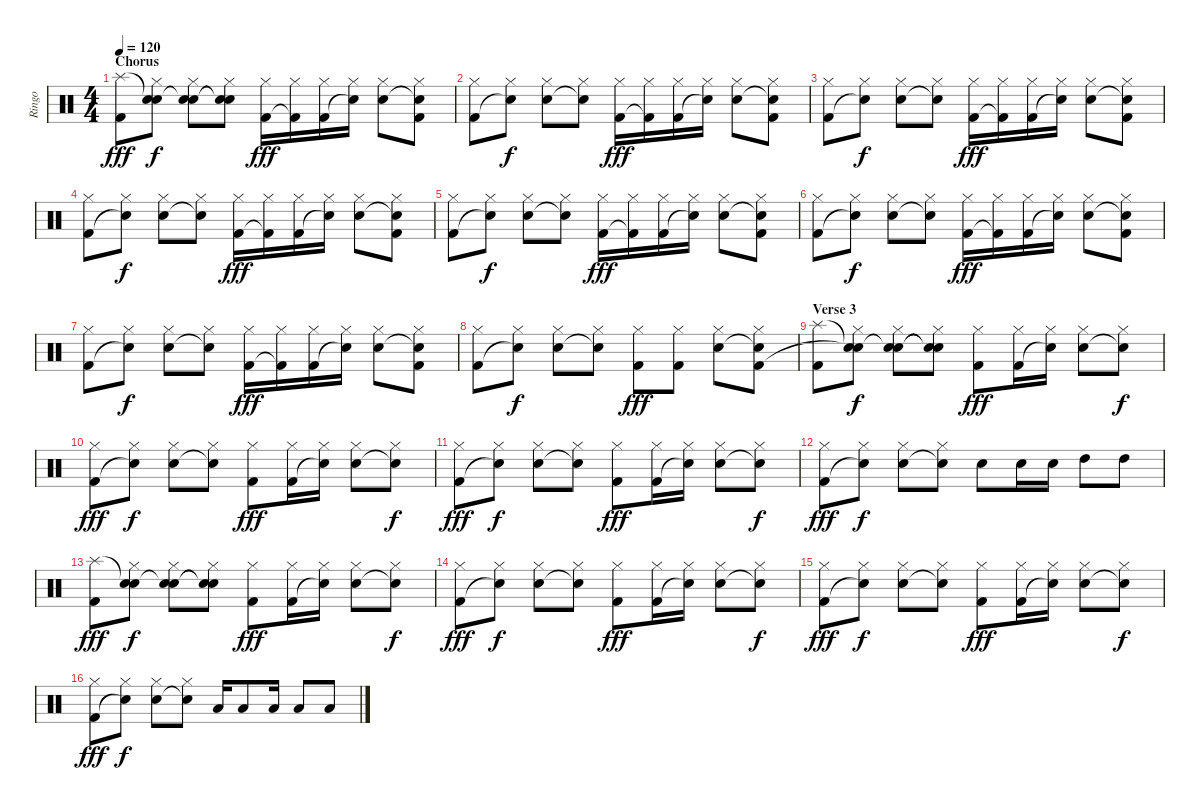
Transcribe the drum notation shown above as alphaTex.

\track ("Ringo" "Ringo") {instrument percussion}
\staff {score}
\articulation defaults
\ts (4 4)
\section ("" "Chorus")
\tempo 120
\clef neutral
\ks c
("Splash (hit)" "Kick (hit) 2").8{dy fff} ("Snare (hit)"{t} "Hi-Hat (closed)" "Snare (hit)").8{dy f} ("Snare (hit)"{t} "Hi-Hat (closed)" "Snare (hit) 2").8 ("Snare (hit)"{t} "Hi-Hat (closed)" "Snare (hit)"{t}).8 ("Hi-Hat (closed)" "Kick (hit) 2").16{dy fff} ("Hi-Hat (closed)" "Kick (hit) 2"{t}).16 ("Hi-Hat (closed)" "Kick (hit) 2").16 ("Hi-Hat (closed)" "Snare (hit)"{t}).16 ("Hi-Hat (closed)" "Snare (hit) 2").8 ("Hi-Hat (closed)" "Snare (hit)"{t} "Kick (hit) 2").8 |
("Hi-Hat (closed)" "Kick (hit) 2").8 ("Hi-Hat (closed)" "Snare (hit)"{t}).8{dy f} ("Hi-Hat (closed)" "Snare (hit) 2").8 ("Hi-Hat (closed)" "Snare (hit)"{t}).8 ("Hi-Hat (closed)" "Kick (hit) 2").16{dy fff} ("Hi-Hat (closed)" "Kick (hit) 2"{t}).16 ("Hi-Hat (closed)" "Kick (hit) 2").16 ("Hi-Hat (closed)" "Snare (hit)"{t}).16 ("Hi-Hat (closed)" "Snare (hit) 2").8 ("Hi-Hat (closed)" "Snare (hit)"{t} "Kick (hit) 2").8 |
("Hi-Hat (closed)" "Kick (hit) 2").8 ("Hi-Hat (closed)" "Snare (hit)"{t}).8{dy f} ("Hi-Hat (closed)" "Snare (hit) 2").8 ("Hi-Hat (closed)" "Snare (hit)"{t}).8 ("Hi-Hat (closed)" "Kick (hit) 2").16{dy fff} ("Hi-Hat (closed)" "Kick (hit) 2"{t}).16 ("Hi-Hat (closed)" "Kick (hit) 2").16 ("Hi-Hat (closed)" "Snare (hit)"{t}).16 ("Hi-Hat (closed)" "Snare (hit) 2").8 ("Hi-Hat (closed)" "Snare (hit)"{t} "Kick (hit) 2").8 |
("Hi-Hat (closed)" "Kick (hit) 2").8 ("Hi-Hat (closed)" "Snare (hit)"{t}).8{dy f} ("Hi-Hat (closed)" "Snare (hit) 2").8 ("Hi-Hat (closed)" "Snare (hit)"{t}).8 ("Hi-Hat (closed)" "Kick (hit) 2").16{dy fff} ("Hi-Hat (closed)" "Kick (hit) 2"{t}).16 ("Hi-Hat (closed)" "Kick (hit) 2").16 ("Hi-Hat (closed)" "Snare (hit)"{t}).16 ("Hi-Hat (closed)" "Snare (hit) 2").8 ("Hi-Hat (closed)" "Snare (hit)"{t} "Kick (hit) 2").8 |
("Hi-Hat (closed)" "Kick (hit) 2").8 ("Hi-Hat (closed)" "Snare (hit)"{t}).8{dy f} ("Hi-Hat (closed)" "Snare (hit) 2").8 ("Hi-Hat (closed)" "Snare (hit)"{t}).8 ("Hi-Hat (closed)" "Kick (hit) 2").16{dy fff} ("Hi-Hat (closed)" "Kick (hit) 2"{t}).16 ("Hi-Hat (closed)" "Kick (hit) 2").16 ("Hi-Hat (closed)" "Snare (hit)"{t}).16 ("Hi-Hat (closed)" "Snare (hit) 2").8 ("Hi-Hat (closed)" "Snare (hit)"{t} "Kick (hit) 2").8 |
("Hi-Hat (closed)" "Kick (hit) 2").8 ("Hi-Hat (closed)" "Snare (hit)"{t}).8{dy f} ("Hi-Hat (closed)" "Snare (hit) 2").8 ("Hi-Hat (closed)" "Snare (hit)"{t}).8 ("Hi-Hat (closed)" "Kick (hit) 2").16{dy fff} ("Hi-Hat (closed)" "Kick (hit) 2"{t}).16 ("Hi-Hat (closed)" "Kick (hit) 2").16 ("Hi-Hat (closed)" "Snare (hit)"{t}).16 ("Hi-Hat (closed)" "Snare (hit) 2").8 ("Hi-Hat (closed)" "Snare (hit)"{t} "Kick (hit) 2").8 |
("Hi-Hat (closed)" "Kick (hit) 2").8 ("Hi-Hat (closed)" "Snare (hit)"{t}).8{dy f} ("Hi-Hat (closed)" "Snare (hit) 2").8 ("Hi-Hat (closed)" "Snare (hit)"{t}).8 ("Hi-Hat (closed)" "Kick (hit) 2").16{dy fff} ("Hi-Hat (closed)" "Kick (hit) 2"{t}).16 ("Hi-Hat (closed)" "Kick (hit) 2").16 ("Hi-Hat (closed)" "Snare (hit)"{t}).16 ("Hi-Hat (closed)" "Snare (hit) 2").8 ("Hi-Hat (closed)" "Snare (hit)"{t} "Kick (hit) 2").8 |
("Hi-Hat (closed)" "Kick (hit) 2").8 ("Hi-Hat (closed)" "Snare (hit)"{t}).8{dy f} ("Hi-Hat (closed)" "Snare (hit) 2").8 ("Hi-Hat (closed)" "Snare (hit)"{t}).8 ("Hi-Hat (closed)" "Kick (hit) 2").8{dy fff} ("Hi-Hat (closed)" "Kick (hit) 2").8 ("Hi-Hat (closed)" "Snare (hit) 2").8 ("Hi-Hat (closed)" "Snare (hit)"{t} "Kick (hit) 2").8 |
\section ("" "Verse 3")
("Splash (hit)" "Kick (hit) 2").8 ("Snare (hit)"{t} "Hi-Hat (closed)" "Snare (hit)"{t}).8{dy f} ("Snare (hit)"{t} "Hi-Hat (closed)" "Snare (hit) 2").8 ("Snare (hit)"{t} "Hi-Hat (closed)" "Snare (hit)"{t}).8 ("Hi-Hat (closed)" "Kick (hit) 2").8{dy fff} ("Hi-Hat (closed)" "Kick (hit) 2").16 ("Hi-Hat (closed)" "Snare (hit)"{t}).16 ("Hi-Hat (closed)" "Snare (hit) 2").8 ("Hi-Hat (closed)" "Snare (hit)"{t}).8{dy f} |
("Hi-Hat (closed)" "Kick (hit) 2").8{dy fff} ("Hi-Hat (closed)" "Snare (hit)"{t}).8{dy f} ("Hi-Hat (closed)" "Snare (hit) 2").8 ("Hi-Hat (closed)" "Snare (hit)"{t}).8 ("Hi-Hat (closed)" "Kick (hit) 2").8{dy fff} ("Hi-Hat (closed)" "Kick (hit) 2").16 ("Hi-Hat (closed)" "Snare (hit)"{t}).16 ("Hi-Hat (closed)" "Snare (hit) 2").8 ("Hi-Hat (closed)" "Snare (hit)"{t}).8{dy f} |
("Hi-Hat (closed)" "Kick (hit) 2").8{dy fff} ("Hi-Hat (closed)" "Snare (hit)"{t}).8{dy f} ("Hi-Hat (closed)" "Snare (hit) 2").8 ("Hi-Hat (closed)" "Snare (hit)"{t}).8 ("Hi-Hat (closed)" "Kick (hit) 2").8{dy fff} ("Hi-Hat (closed)" "Kick (hit) 2").16 ("Hi-Hat (closed)" "Snare (hit)"{t}).16 ("Hi-Hat (closed)" "Snare (hit) 2").8 ("Hi-Hat (closed)" "Snare (hit)"{t}).8{dy f} |
("Hi-Hat (closed)" "Kick (hit) 2").8{dy fff} ("Hi-Hat (closed)" "Snare (hit)"{t}).8{dy f} ("Hi-Hat (closed)" "Snare (hit) 2").8 ("Hi-Hat (closed)" "Snare (hit)"{t}).8 "Snare (hit) 2".8 "Snare (hit) 2".16 "Snare (hit) 2".16 "High Tom (hit)".8 "High Tom (hit)".8 |
("Splash (hit)" "Kick (hit) 2").8{dy fff} ("Snare (hit)"{t} "Hi-Hat (closed)" "Snare (hit)").8{dy f} ("Snare (hit)"{t} "Hi-Hat (closed)" "Snare (hit) 2").8 ("Snare (hit)"{t} "Hi-Hat (closed)" "Snare (hit)"{t}).8 ("Hi-Hat (closed)" "Kick (hit) 2").8{dy fff} ("Hi-Hat (closed)" "Kick (hit) 2").16 ("Hi-Hat (closed)" "Snare (hit)"{t}).16 ("Hi-Hat (closed)" "Snare (hit) 2").8 ("Hi-Hat (closed)" "Snare (hit)"{t}).8{dy f} |
("Hi-Hat (closed)" "Kick (hit) 2").8{dy fff} ("Hi-Hat (closed)" "Snare (hit)"{t}).8{dy f} ("Hi-Hat (closed)" "Snare (hit) 2").8 ("Hi-Hat (closed)" "Snare (hit)"{t}).8 ("Hi-Hat (closed)" "Kick (hit) 2").8{dy fff} ("Hi-Hat (closed)" "Kick (hit) 2").16 ("Hi-Hat (closed)" "Snare (hit)"{t}).16 ("Hi-Hat (closed)" "Snare (hit) 2").8 ("Hi-Hat (closed)" "Snare (hit)"{t}).8{dy f} |
("Hi-Hat (closed)" "Kick (hit) 2").8{dy fff} ("Hi-Hat (closed)" "Snare (hit)"{t}).8{dy f} ("Hi-Hat (closed)" "Snare (hit) 2").8 ("Hi-Hat (closed)" "Snare (hit)"{t}).8 ("Hi-Hat (closed)" "Kick (hit) 2").8{dy fff} ("Hi-Hat (closed)" "Kick (hit) 2").16 ("Hi-Hat (closed)" "Snare (hit)"{t}).16 ("Hi-Hat (closed)" "Snare (hit) 2").8 ("Hi-Hat (closed)" "Snare (hit)"{t}).8{dy f} |
("Hi-Hat (closed)" "Kick (hit) 2").8{dy fff} ("Hi-Hat (closed)" "Snare (hit)"{t}).8{dy f} ("Hi-Hat (closed)" "Snare (hit) 2").8 ("Hi-Hat (closed)" "Snare (hit)"{t}).8 "Low Floor Tom (hit)".16 "Low Floor Tom (hit)".8 "Low Floor Tom (hit)".16 "Low Floor Tom (hit)".8 "Low Floor Tom (hit)".8
